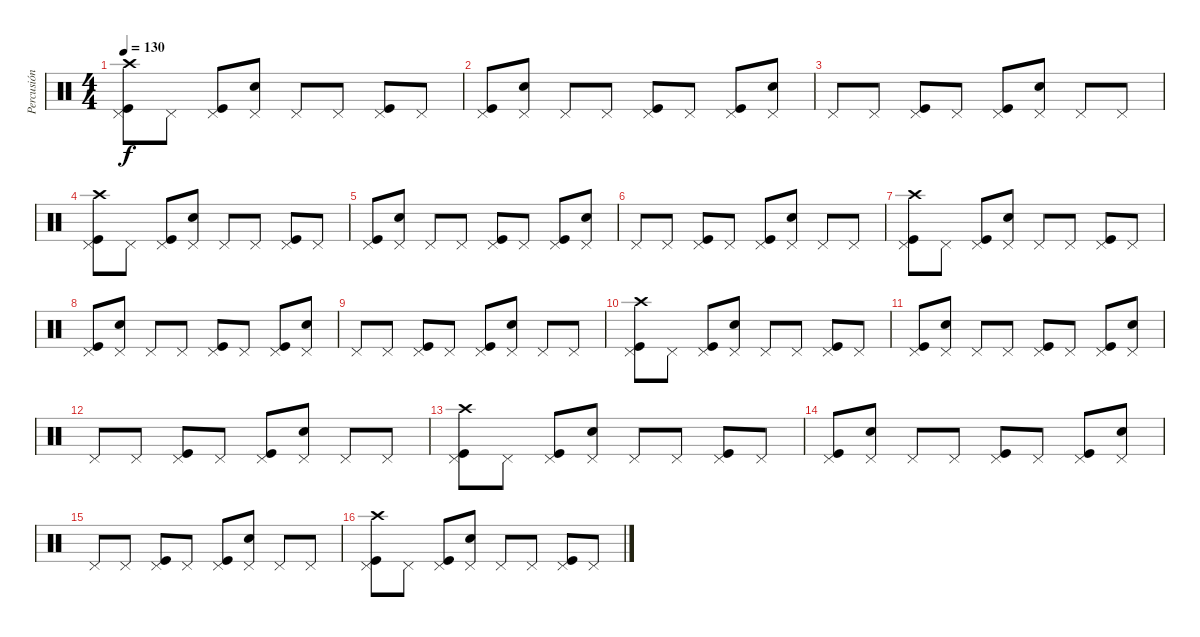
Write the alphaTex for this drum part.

\track ("Percusión" "Percusión") {instrument percussion}
\staff {score}
\articulation defaults
\ts (4 4)
\tempo 130
\clef neutral
\ks c
("Kick (hit)" "Pedal Hi-Hat (hit)" "Crash high (hit)").8{dy f} "Pedal Hi-Hat (hit)".8 ("Kick (hit)" "Pedal Hi-Hat (hit)").8 ("Electric Snare (hit)" "Pedal Hi-Hat (hit)").8 "Pedal Hi-Hat (hit)".8 "Pedal Hi-Hat (hit)".8 ("Kick (hit)" "Pedal Hi-Hat (hit)").8 "Pedal Hi-Hat (hit)".8 |
("Kick (hit)" "Pedal Hi-Hat (hit)").8 ("Electric Snare (hit)" "Pedal Hi-Hat (hit)").8 "Pedal Hi-Hat (hit)".8 "Pedal Hi-Hat (hit)".8 ("Kick (hit)" "Pedal Hi-Hat (hit)").8 "Pedal Hi-Hat (hit)".8 ("Kick (hit)" "Pedal Hi-Hat (hit)").8 ("Electric Snare (hit)" "Pedal Hi-Hat (hit)").8 |
"Pedal Hi-Hat (hit)".8 "Pedal Hi-Hat (hit)".8 ("Kick (hit)" "Pedal Hi-Hat (hit)").8 "Pedal Hi-Hat (hit)".8 ("Kick (hit)" "Pedal Hi-Hat (hit)").8 ("Electric Snare (hit)" "Pedal Hi-Hat (hit)").8 "Pedal Hi-Hat (hit)".8 "Pedal Hi-Hat (hit)".8 |
("Kick (hit)" "Pedal Hi-Hat (hit)" "Crash high (hit)").8 "Pedal Hi-Hat (hit)".8 ("Kick (hit)" "Pedal Hi-Hat (hit)").8 ("Electric Snare (hit)" "Pedal Hi-Hat (hit)").8 "Pedal Hi-Hat (hit)".8 "Pedal Hi-Hat (hit)".8 ("Kick (hit)" "Pedal Hi-Hat (hit)").8 "Pedal Hi-Hat (hit)".8 |
("Kick (hit)" "Pedal Hi-Hat (hit)").8 ("Electric Snare (hit)" "Pedal Hi-Hat (hit)").8 "Pedal Hi-Hat (hit)".8 "Pedal Hi-Hat (hit)".8 ("Kick (hit)" "Pedal Hi-Hat (hit)").8 "Pedal Hi-Hat (hit)".8 ("Kick (hit)" "Pedal Hi-Hat (hit)").8 ("Electric Snare (hit)" "Pedal Hi-Hat (hit)").8 |
"Pedal Hi-Hat (hit)".8 "Pedal Hi-Hat (hit)".8 ("Kick (hit)" "Pedal Hi-Hat (hit)").8 "Pedal Hi-Hat (hit)".8 ("Kick (hit)" "Pedal Hi-Hat (hit)").8 ("Electric Snare (hit)" "Pedal Hi-Hat (hit)").8 "Pedal Hi-Hat (hit)".8 "Pedal Hi-Hat (hit)".8 |
("Kick (hit)" "Pedal Hi-Hat (hit)" "Crash high (hit)").8 "Pedal Hi-Hat (hit)".8 ("Kick (hit)" "Pedal Hi-Hat (hit)").8 ("Electric Snare (hit)" "Pedal Hi-Hat (hit)").8 "Pedal Hi-Hat (hit)".8 "Pedal Hi-Hat (hit)".8 ("Kick (hit)" "Pedal Hi-Hat (hit)").8 "Pedal Hi-Hat (hit)".8 |
("Kick (hit)" "Pedal Hi-Hat (hit)").8 ("Electric Snare (hit)" "Pedal Hi-Hat (hit)").8 "Pedal Hi-Hat (hit)".8 "Pedal Hi-Hat (hit)".8 ("Kick (hit)" "Pedal Hi-Hat (hit)").8 "Pedal Hi-Hat (hit)".8 ("Kick (hit)" "Pedal Hi-Hat (hit)").8 ("Electric Snare (hit)" "Pedal Hi-Hat (hit)").8 |
"Pedal Hi-Hat (hit)".8 "Pedal Hi-Hat (hit)".8 ("Kick (hit)" "Pedal Hi-Hat (hit)").8 "Pedal Hi-Hat (hit)".8 ("Kick (hit)" "Pedal Hi-Hat (hit)").8 ("Electric Snare (hit)" "Pedal Hi-Hat (hit)").8 "Pedal Hi-Hat (hit)".8 "Pedal Hi-Hat (hit)".8 |
("Kick (hit)" "Pedal Hi-Hat (hit)" "Crash high (hit)").8 "Pedal Hi-Hat (hit)".8 ("Kick (hit)" "Pedal Hi-Hat (hit)").8 ("Electric Snare (hit)" "Pedal Hi-Hat (hit)").8 "Pedal Hi-Hat (hit)".8 "Pedal Hi-Hat (hit)".8 ("Kick (hit)" "Pedal Hi-Hat (hit)").8 "Pedal Hi-Hat (hit)".8 |
("Kick (hit)" "Pedal Hi-Hat (hit)").8 ("Electric Snare (hit)" "Pedal Hi-Hat (hit)").8 "Pedal Hi-Hat (hit)".8 "Pedal Hi-Hat (hit)".8 ("Kick (hit)" "Pedal Hi-Hat (hit)").8 "Pedal Hi-Hat (hit)".8 ("Kick (hit)" "Pedal Hi-Hat (hit)").8 ("Electric Snare (hit)" "Pedal Hi-Hat (hit)").8 |
"Pedal Hi-Hat (hit)".8 "Pedal Hi-Hat (hit)".8 ("Kick (hit)" "Pedal Hi-Hat (hit)").8 "Pedal Hi-Hat (hit)".8 ("Kick (hit)" "Pedal Hi-Hat (hit)").8 ("Electric Snare (hit)" "Pedal Hi-Hat (hit)").8 "Pedal Hi-Hat (hit)".8 "Pedal Hi-Hat (hit)".8 |
("Kick (hit)" "Pedal Hi-Hat (hit)" "Crash high (hit)").8 "Pedal Hi-Hat (hit)".8 ("Kick (hit)" "Pedal Hi-Hat (hit)").8 ("Electric Snare (hit)" "Pedal Hi-Hat (hit)").8 "Pedal Hi-Hat (hit)".8 "Pedal Hi-Hat (hit)".8 ("Kick (hit)" "Pedal Hi-Hat (hit)").8 "Pedal Hi-Hat (hit)".8 |
("Kick (hit)" "Pedal Hi-Hat (hit)").8 ("Electric Snare (hit)" "Pedal Hi-Hat (hit)").8 "Pedal Hi-Hat (hit)".8 "Pedal Hi-Hat (hit)".8 ("Kick (hit)" "Pedal Hi-Hat (hit)").8 "Pedal Hi-Hat (hit)".8 ("Kick (hit)" "Pedal Hi-Hat (hit)").8 ("Electric Snare (hit)" "Pedal Hi-Hat (hit)").8 |
"Pedal Hi-Hat (hit)".8 "Pedal Hi-Hat (hit)".8 ("Kick (hit)" "Pedal Hi-Hat (hit)").8 "Pedal Hi-Hat (hit)".8 ("Kick (hit)" "Pedal Hi-Hat (hit)").8 ("Electric Snare (hit)" "Pedal Hi-Hat (hit)").8 "Pedal Hi-Hat (hit)".8 "Pedal Hi-Hat (hit)".8 |
("Kick (hit)" "Pedal Hi-Hat (hit)" "Crash high (hit)").8 "Pedal Hi-Hat (hit)".8 ("Kick (hit)" "Pedal Hi-Hat (hit)").8 ("Electric Snare (hit)" "Pedal Hi-Hat (hit)").8 "Pedal Hi-Hat (hit)".8 "Pedal Hi-Hat (hit)".8 ("Kick (hit)" "Pedal Hi-Hat (hit)").8 "Pedal Hi-Hat (hit)".8
